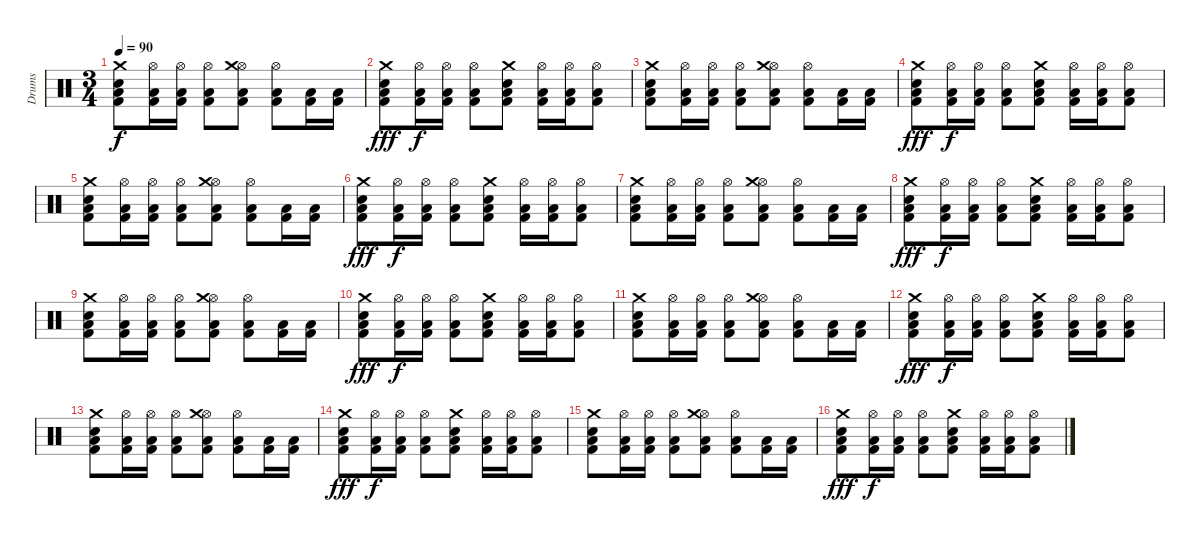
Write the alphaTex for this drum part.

\track ("Drums" "Drums") {instrument percussion}
\staff {score}
\articulation defaults
\ts (3 4)
\tempo 90
\clef neutral
\ks c
("Kick (hit) 2" "Low Floor Tom (hit)" "Electric Snare (hit)" "Crash medium (hit)").8{dy f} ("Kick (hit) 2" "Low Floor Tom (hit)" "Hi-Hat (open)").16 ("Kick (hit) 2" "Low Floor Tom (hit)" "Hi-Hat (open)").16 ("Kick (hit) 2" "Low Floor Tom (hit)" "Hi-Hat (open)").8 ("Kick (hit) 2" "Low Floor Tom (hit)" "Hi-Hat (open)" "Crash medium (hit)").8 ("Kick (hit) 2" "Low Floor Tom (hit)" "Hi-Hat (open)").8 ("Kick (hit) 2" "Low Floor Tom (hit)").16 ("Kick (hit) 2" "Low Floor Tom (hit)").16 |
("Kick (hit) 2" "Low Floor Tom (hit)" "Electric Snare (hit)" "Crash medium (hit)").8{dy fff} ("Kick (hit) 2" "Low Floor Tom (hit)" "Hi-Hat (open)").16{dy f} ("Kick (hit) 2" "Low Floor Tom (hit)" "Hi-Hat (open)").16 ("Kick (hit) 2" "Low Floor Tom (hit)" "Hi-Hat (open)").8 ("Kick (hit) 2" "Low Floor Tom (hit)" "Electric Snare (hit)" "Crash medium (hit)").8 ("Kick (hit) 2" "Low Floor Tom (hit)" "Hi-Hat (open)").16 ("Kick (hit) 2" "Low Floor Tom (hit)" "Hi-Hat (open)").16 ("Kick (hit) 2" "Low Floor Tom (hit)" "Hi-Hat (open)").8 |
("Kick (hit) 2" "Low Floor Tom (hit)" "Electric Snare (hit)" "Crash medium (hit)").8 ("Kick (hit) 2" "Low Floor Tom (hit)" "Hi-Hat (open)").16 ("Kick (hit) 2" "Low Floor Tom (hit)" "Hi-Hat (open)").16 ("Kick (hit) 2" "Low Floor Tom (hit)" "Hi-Hat (open)").8 ("Kick (hit) 2" "Low Floor Tom (hit)" "Hi-Hat (open)" "Crash medium (hit)").8 ("Kick (hit) 2" "Low Floor Tom (hit)" "Hi-Hat (open)").8 ("Kick (hit) 2" "Low Floor Tom (hit)").16 ("Kick (hit) 2" "Low Floor Tom (hit)").16 |
("Kick (hit) 2" "Low Floor Tom (hit)" "Electric Snare (hit)" "Crash medium (hit)").8{dy fff} ("Kick (hit) 2" "Low Floor Tom (hit)" "Hi-Hat (open)").16{dy f} ("Kick (hit) 2" "Low Floor Tom (hit)" "Hi-Hat (open)").16 ("Kick (hit) 2" "Low Floor Tom (hit)" "Hi-Hat (open)").8 ("Kick (hit) 2" "Low Floor Tom (hit)" "Electric Snare (hit)" "Crash medium (hit)").8 ("Kick (hit) 2" "Low Floor Tom (hit)" "Hi-Hat (open)").16 ("Kick (hit) 2" "Low Floor Tom (hit)" "Hi-Hat (open)").16 ("Kick (hit) 2" "Low Floor Tom (hit)" "Hi-Hat (open)").8 |
("Kick (hit) 2" "Low Floor Tom (hit)" "Electric Snare (hit)" "Crash medium (hit)").8 ("Kick (hit) 2" "Low Floor Tom (hit)" "Hi-Hat (open)").16 ("Kick (hit) 2" "Low Floor Tom (hit)" "Hi-Hat (open)").16 ("Kick (hit) 2" "Low Floor Tom (hit)" "Hi-Hat (open)").8 ("Kick (hit) 2" "Low Floor Tom (hit)" "Hi-Hat (open)" "Crash medium (hit)").8 ("Kick (hit) 2" "Low Floor Tom (hit)" "Hi-Hat (open)").8 ("Kick (hit) 2" "Low Floor Tom (hit)").16 ("Kick (hit) 2" "Low Floor Tom (hit)").16 |
("Kick (hit) 2" "Low Floor Tom (hit)" "Electric Snare (hit)" "Crash medium (hit)").8{dy fff} ("Kick (hit) 2" "Low Floor Tom (hit)" "Hi-Hat (open)").16{dy f} ("Kick (hit) 2" "Low Floor Tom (hit)" "Hi-Hat (open)").16 ("Kick (hit) 2" "Low Floor Tom (hit)" "Hi-Hat (open)").8 ("Kick (hit) 2" "Low Floor Tom (hit)" "Electric Snare (hit)" "Crash medium (hit)").8 ("Kick (hit) 2" "Low Floor Tom (hit)" "Hi-Hat (open)").16 ("Kick (hit) 2" "Low Floor Tom (hit)" "Hi-Hat (open)").16 ("Kick (hit) 2" "Low Floor Tom (hit)" "Hi-Hat (open)").8 |
("Kick (hit) 2" "Low Floor Tom (hit)" "Electric Snare (hit)" "Crash medium (hit)").8 ("Kick (hit) 2" "Low Floor Tom (hit)" "Hi-Hat (open)").16 ("Kick (hit) 2" "Low Floor Tom (hit)" "Hi-Hat (open)").16 ("Kick (hit) 2" "Low Floor Tom (hit)" "Hi-Hat (open)").8 ("Kick (hit) 2" "Low Floor Tom (hit)" "Hi-Hat (open)" "Crash medium (hit)").8 ("Kick (hit) 2" "Low Floor Tom (hit)" "Hi-Hat (open)").8 ("Kick (hit) 2" "Low Floor Tom (hit)").16 ("Kick (hit) 2" "Low Floor Tom (hit)").16 |
("Kick (hit) 2" "Low Floor Tom (hit)" "Electric Snare (hit)" "Crash medium (hit)").8{dy fff} ("Kick (hit) 2" "Low Floor Tom (hit)" "Hi-Hat (open)").16{dy f} ("Kick (hit) 2" "Low Floor Tom (hit)" "Hi-Hat (open)").16 ("Kick (hit) 2" "Low Floor Tom (hit)" "Hi-Hat (open)").8 ("Kick (hit) 2" "Low Floor Tom (hit)" "Electric Snare (hit)" "Crash medium (hit)").8 ("Kick (hit) 2" "Low Floor Tom (hit)" "Hi-Hat (open)").16 ("Kick (hit) 2" "Low Floor Tom (hit)" "Hi-Hat (open)").16 ("Kick (hit) 2" "Low Floor Tom (hit)" "Hi-Hat (open)").8 |
("Kick (hit) 2" "Low Floor Tom (hit)" "Electric Snare (hit)" "Crash medium (hit)").8 ("Kick (hit) 2" "Low Floor Tom (hit)" "Hi-Hat (open)").16 ("Kick (hit) 2" "Low Floor Tom (hit)" "Hi-Hat (open)").16 ("Kick (hit) 2" "Low Floor Tom (hit)" "Hi-Hat (open)").8 ("Kick (hit) 2" "Low Floor Tom (hit)" "Hi-Hat (open)" "Crash medium (hit)").8 ("Kick (hit) 2" "Low Floor Tom (hit)" "Hi-Hat (open)").8 ("Kick (hit) 2" "Low Floor Tom (hit)").16 ("Kick (hit) 2" "Low Floor Tom (hit)").16 |
("Kick (hit) 2" "Low Floor Tom (hit)" "Electric Snare (hit)" "Crash medium (hit)").8{dy fff} ("Kick (hit) 2" "Low Floor Tom (hit)" "Hi-Hat (open)").16{dy f} ("Kick (hit) 2" "Low Floor Tom (hit)" "Hi-Hat (open)").16 ("Kick (hit) 2" "Low Floor Tom (hit)" "Hi-Hat (open)").8 ("Kick (hit) 2" "Low Floor Tom (hit)" "Electric Snare (hit)" "Crash medium (hit)").8 ("Kick (hit) 2" "Low Floor Tom (hit)" "Hi-Hat (open)").16 ("Kick (hit) 2" "Low Floor Tom (hit)" "Hi-Hat (open)").16 ("Kick (hit) 2" "Low Floor Tom (hit)" "Hi-Hat (open)").8 |
("Kick (hit) 2" "Low Floor Tom (hit)" "Electric Snare (hit)" "Crash medium (hit)").8 ("Kick (hit) 2" "Low Floor Tom (hit)" "Hi-Hat (open)").16 ("Kick (hit) 2" "Low Floor Tom (hit)" "Hi-Hat (open)").16 ("Kick (hit) 2" "Low Floor Tom (hit)" "Hi-Hat (open)").8 ("Kick (hit) 2" "Low Floor Tom (hit)" "Hi-Hat (open)" "Crash medium (hit)").8 ("Kick (hit) 2" "Low Floor Tom (hit)" "Hi-Hat (open)").8 ("Kick (hit) 2" "Low Floor Tom (hit)").16 ("Kick (hit) 2" "Low Floor Tom (hit)").16 |
("Kick (hit) 2" "Low Floor Tom (hit)" "Electric Snare (hit)" "Crash medium (hit)").8{dy fff} ("Kick (hit) 2" "Low Floor Tom (hit)" "Hi-Hat (open)").16{dy f} ("Kick (hit) 2" "Low Floor Tom (hit)" "Hi-Hat (open)").16 ("Kick (hit) 2" "Low Floor Tom (hit)" "Hi-Hat (open)").8 ("Kick (hit) 2" "Low Floor Tom (hit)" "Electric Snare (hit)" "Crash medium (hit)").8 ("Kick (hit) 2" "Low Floor Tom (hit)" "Hi-Hat (open)").16 ("Kick (hit) 2" "Low Floor Tom (hit)" "Hi-Hat (open)").16 ("Kick (hit) 2" "Low Floor Tom (hit)" "Hi-Hat (open)").8 |
("Kick (hit) 2" "Low Floor Tom (hit)" "Electric Snare (hit)" "Crash medium (hit)").8 ("Kick (hit) 2" "Low Floor Tom (hit)" "Hi-Hat (open)").16 ("Kick (hit) 2" "Low Floor Tom (hit)" "Hi-Hat (open)").16 ("Kick (hit) 2" "Low Floor Tom (hit)" "Hi-Hat (open)").8 ("Kick (hit) 2" "Low Floor Tom (hit)" "Hi-Hat (open)" "Crash medium (hit)").8 ("Kick (hit) 2" "Low Floor Tom (hit)" "Hi-Hat (open)").8 ("Kick (hit) 2" "Low Floor Tom (hit)").16 ("Kick (hit) 2" "Low Floor Tom (hit)").16 |
("Kick (hit) 2" "Low Floor Tom (hit)" "Electric Snare (hit)" "Crash medium (hit)").8{dy fff volume 7} ("Kick (hit) 2" "Low Floor Tom (hit)" "Hi-Hat (open)").16{dy f} ("Kick (hit) 2" "Low Floor Tom (hit)" "Hi-Hat (open)").16 ("Kick (hit) 2" "Low Floor Tom (hit)" "Hi-Hat (open)").8 ("Kick (hit) 2" "Low Floor Tom (hit)" "Electric Snare (hit)" "Crash medium (hit)").8 ("Kick (hit) 2" "Low Floor Tom (hit)" "Hi-Hat (open)").16 ("Kick (hit) 2" "Low Floor Tom (hit)" "Hi-Hat (open)").16 ("Kick (hit) 2" "Low Floor Tom (hit)" "Hi-Hat (open)").8 |
("Kick (hit) 2" "Low Floor Tom (hit)" "Electric Snare (hit)" "Crash medium (hit)").8 ("Kick (hit) 2" "Low Floor Tom (hit)" "Hi-Hat (open)").16 ("Kick (hit) 2" "Low Floor Tom (hit)" "Hi-Hat (open)").16 ("Kick (hit) 2" "Low Floor Tom (hit)" "Hi-Hat (open)").8 ("Kick (hit) 2" "Low Floor Tom (hit)" "Hi-Hat (open)" "Crash medium (hit)").8 ("Kick (hit) 2" "Low Floor Tom (hit)" "Hi-Hat (open)").8 ("Kick (hit) 2" "Low Floor Tom (hit)").16 ("Kick (hit) 2" "Low Floor Tom (hit)").16 |
("Kick (hit) 2" "Low Floor Tom (hit)" "Electric Snare (hit)" "Crash medium (hit)").8{dy fff} ("Kick (hit) 2" "Low Floor Tom (hit)" "Hi-Hat (open)").16{dy f} ("Kick (hit) 2" "Low Floor Tom (hit)" "Hi-Hat (open)").16 ("Kick (hit) 2" "Low Floor Tom (hit)" "Hi-Hat (open)").8 ("Kick (hit) 2" "Low Floor Tom (hit)" "Electric Snare (hit)" "Crash medium (hit)").8 ("Kick (hit) 2" "Low Floor Tom (hit)" "Hi-Hat (open)").16 ("Kick (hit) 2" "Low Floor Tom (hit)" "Hi-Hat (open)").16 ("Kick (hit) 2" "Low Floor Tom (hit)" "Hi-Hat (open)").8
